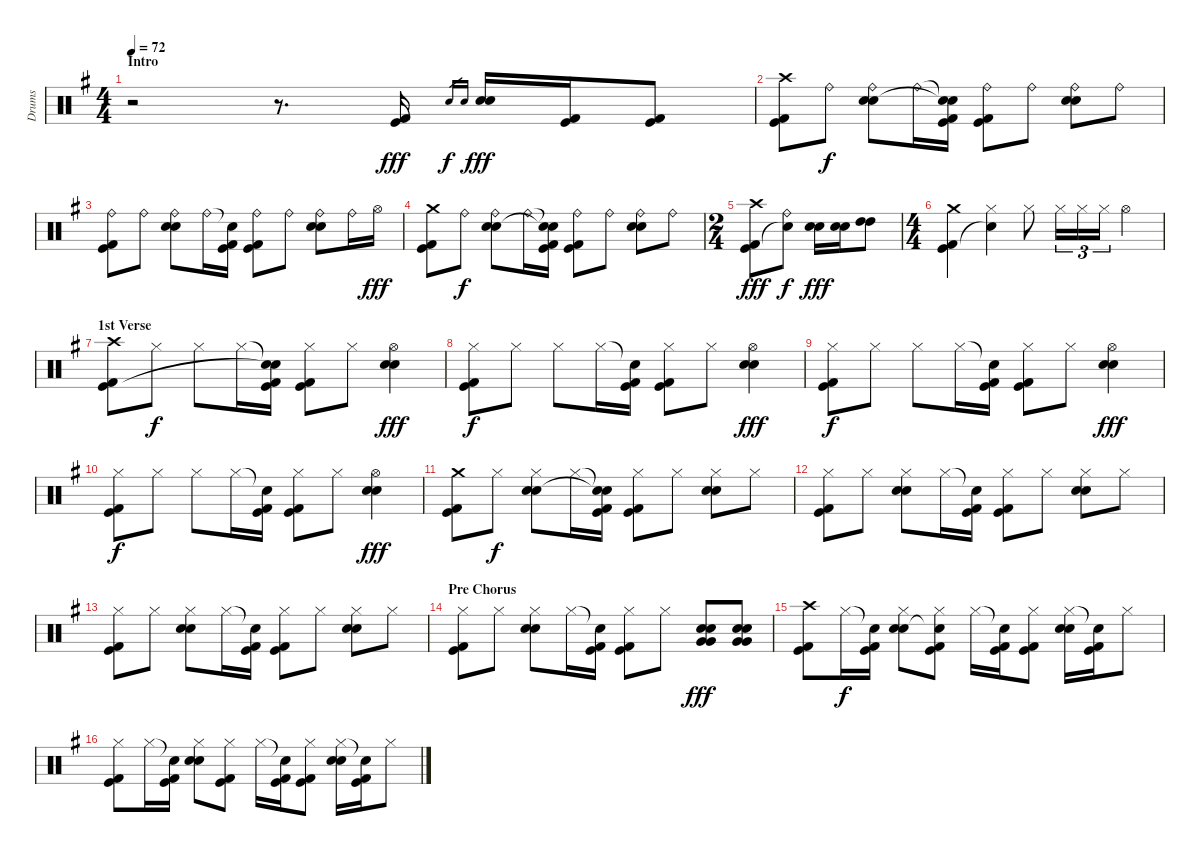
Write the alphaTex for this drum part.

\track ("Drums" "Drums") {instrument percussion}
\staff {score}
\articulation defaults
\ts (4 4)
\section ("" "Intro")
\tempo 72
\clef neutral
\ks g
r.2{dy fff} r.8{d} ("Kick (hit)" "Kick (hit) 2").16 "Electric Snare (hit)".16{gr dy f} "Snare (hit) 2".16{gr} ("Electric Snare (hit)" "Snare (hit) 2").16{dy fff} ("Kick (hit)" "Kick (hit) 2").16 ("Kick (hit)" "Kick (hit) 2").8 |
("Crash high (hit)" "Kick (hit)" "Kick (hit) 2").8 "Ride (bell)".8{dy f} ("Ride (bell)" "Electric Snare (hit)" "Snare (hit) 2").8 "Ride (bell)".16 ("Snare (hit)"{t} "Snare (hit)"{t} "Kick (hit)" "Kick (hit) 2").16 ("Ride (bell)" "Kick (hit)" "Kick (hit) 2").8 "Ride (bell)".8 ("Ride (bell)" "Electric Snare (hit)" "Snare (hit) 2").8 "Ride (bell)".8 |
("Ride (bell)" "Kick (hit)" "Kick (hit) 2").8 "Ride (bell)".8 ("Ride (bell)" "Electric Snare (hit)" "Snare (hit) 2").8 "Ride (bell)".16 ("Snare (hit)"{t} "Kick (hit)" "Kick (hit) 2").16 ("Ride (bell)" "Kick (hit)" "Kick (hit) 2").8 "Ride (bell)".8 ("Ride (bell)" "Electric Snare (hit)" "Snare (hit) 2").8 "Ride (bell)".16 "Hi-Hat (open)".16{dy fff} |
("Crash medium (hit)" "Kick (hit)" "Kick (hit) 2").8 "Ride (bell)".8{dy f} ("Ride (bell)" "Electric Snare (hit)" "Snare (hit) 2").8 "Ride (bell)".16 ("Snare (hit)"{t} "Snare (hit)"{t} "Kick (hit)" "Kick (hit) 2").16 ("Ride (bell)" "Kick (hit)" "Kick (hit) 2").8 "Ride (bell)".8 ("Ride (bell)" "Electric Snare (hit)" "Snare (hit) 2").8 "Ride (bell)".8 |
\ts (2 4)
("Crash high (hit)" "Kick (hit)" "Kick (hit) 2").8{dy fff} ("Ride (bell)" "Snare (hit)"{t}).8{dy f} ("Electric Snare (hit)" "Snare (hit) 2").16{dy fff} ("Electric Snare (hit)" "Snare (hit) 2").16 ("High Tom (hit)" "High Tom (hit)").8 |
\ts (4 4)
("Crash medium (hit)" "Kick (hit)" "Kick (hit) 2").4 ("Hi-Hat (closed)" "Snare (hit)"{t}).4 "Hi-Hat (closed)".8 "Hi-Hat (closed)".16{tu (3 2)} "Hi-Hat (closed)".16{tu (3 2)} "Hi-Hat (closed)".16{tu (3 2)} "Hi-Hat (open)".4 |
\section ("" "1st Verse")
("Crash high (hit)" "Kick (hit)" "Kick (hit) 2").8 "Hi-Hat (closed)".8{dy f} "Hi-Hat (closed)".8 "Hi-Hat (closed)".16 ("Snare (hit)"{t} "Snare (hit)"{t} "Kick (hit)" "Kick (hit) 2").16 ("Hi-Hat (closed)" "Kick (hit)" "Kick (hit) 2").8 "Hi-Hat (closed)".8 ("Hi-Hat (open)" "Electric Snare (hit)" "Snare (hit) 2").4{dy fff} |
("Hi-Hat (closed)" "Kick (hit)" "Kick (hit) 2").8{dy f} "Hi-Hat (closed)".8 "Hi-Hat (closed)".8 "Hi-Hat (closed)".16 ("Snare (hit)"{t} "Kick (hit)" "Kick (hit) 2").16 ("Hi-Hat (closed)" "Kick (hit)" "Kick (hit) 2").8 "Hi-Hat (closed)".8 ("Hi-Hat (open)" "Electric Snare (hit)" "Snare (hit) 2").4{dy fff} |
("Hi-Hat (closed)" "Kick (hit)" "Kick (hit) 2").8{dy f} "Hi-Hat (closed)".8 "Hi-Hat (closed)".8 "Hi-Hat (closed)".16 ("Snare (hit)"{t} "Kick (hit)" "Kick (hit) 2").16 ("Hi-Hat (closed)" "Kick (hit)" "Kick (hit) 2").8 "Hi-Hat (closed)".8 ("Hi-Hat (open)" "Electric Snare (hit)" "Snare (hit) 2").4{dy fff} |
("Hi-Hat (closed)" "Kick (hit)" "Kick (hit) 2").8{dy f} "Hi-Hat (closed)".8 "Hi-Hat (closed)".8 "Hi-Hat (closed)".16 ("Snare (hit)"{t} "Kick (hit)" "Kick (hit) 2").16 ("Hi-Hat (closed)" "Kick (hit)" "Kick (hit) 2").8 "Hi-Hat (closed)".8 ("Hi-Hat (open)" "Electric Snare (hit)" "Snare (hit) 2").4{dy fff} |
("Crash medium (hit)" "Kick (hit)" "Kick (hit) 2").8 "Hi-Hat (closed)".8{dy f} ("Hi-Hat (closed)" "Electric Snare (hit)" "Snare (hit) 2").8 "Hi-Hat (closed)".16 ("Snare (hit)"{t} "Snare (hit)"{t} "Kick (hit)" "Kick (hit) 2").16 ("Hi-Hat (closed)" "Kick (hit)" "Kick (hit) 2").8 "Hi-Hat (closed)".8 ("Hi-Hat (closed)" "Electric Snare (hit)" "Snare (hit) 2").8 "Hi-Hat (closed)".8 |
("Hi-Hat (closed)" "Kick (hit)" "Kick (hit) 2").8 "Hi-Hat (closed)".8 ("Hi-Hat (closed)" "Electric Snare (hit)" "Snare (hit) 2").8 "Hi-Hat (closed)".16 ("Snare (hit)"{t} "Kick (hit)" "Kick (hit) 2").16 ("Hi-Hat (closed)" "Kick (hit)" "Kick (hit) 2").8 "Hi-Hat (closed)".8 ("Hi-Hat (closed)" "Electric Snare (hit)" "Snare (hit) 2").8 "Hi-Hat (closed)".8 |
("Hi-Hat (closed)" "Kick (hit)" "Kick (hit) 2").8 "Hi-Hat (closed)".8 ("Hi-Hat (closed)" "Electric Snare (hit)" "Snare (hit) 2").8 "Hi-Hat (closed)".16 ("Snare (hit)"{t} "Kick (hit)" "Kick (hit) 2").16 ("Hi-Hat (closed)" "Kick (hit)" "Kick (hit) 2").8 "Hi-Hat (closed)".8 ("Hi-Hat (closed)" "Electric Snare (hit)" "Snare (hit) 2").8 "Hi-Hat (closed)".8 |
\section ("" "Pre Chorus")
("Hi-Hat (closed)" "Kick (hit)" "Kick (hit) 2").8 "Hi-Hat (closed)".8 ("Hi-Hat (closed)" "Electric Snare (hit)" "Snare (hit) 2").8 "Hi-Hat (closed)".16 ("Snare (hit)"{t} "Kick (hit)" "Kick (hit) 2").16 ("Hi-Hat (closed)" "Kick (hit)" "Kick (hit) 2").8 "Hi-Hat (closed)".8 ("Electric Snare (hit)" "Snare (hit) 2" "Very Low Tom (hit)" "Very Low Tom (hit)").8{dy fff} ("Electric Snare (hit)" "Snare (hit) 2" "Very Low Tom (hit)" "Very Low Tom (hit)").8 |
("Crash high (hit)" "Kick (hit)" "Kick (hit) 2").8 "Hi-Hat (closed)".16{dy f} ("Snare (hit)"{t} "Kick (hit)" "Kick (hit) 2").16 ("Hi-Hat (closed)" "Electric Snare (hit)" "Snare (hit) 2").8 ("Hi-Hat (closed)" "Snare (hit)"{t} "Kick (hit)" "Kick (hit) 2").8 "Hi-Hat (closed)".16 ("Snare (hit)"{t} "Kick (hit)" "Kick (hit) 2").16 ("Hi-Hat (closed)" "Kick (hit)" "Kick (hit) 2").8 ("Hi-Hat (closed)" "Electric Snare (hit)" "Snare (hit) 2").16 ("Snare (hit)"{t} "Kick (hit)" "Kick (hit) 2").16 "Hi-Hat (closed)".8 |
("Hi-Hat (closed)" "Kick (hit)" "Kick (hit) 2").8 "Hi-Hat (closed)".16 ("Snare (hit)"{t} "Kick (hit)" "Kick (hit) 2").16 ("Hi-Hat (closed)" "Electric Snare (hit)" "Snare (hit) 2").8 ("Hi-Hat (closed)" "Kick (hit)" "Kick (hit) 2").8 "Hi-Hat (closed)".16 ("Snare (hit)"{t} "Kick (hit)" "Kick (hit) 2").16 ("Hi-Hat (closed)" "Kick (hit)" "Kick (hit) 2").8 ("Hi-Hat (closed)" "Electric Snare (hit)" "Snare (hit) 2").16 ("Snare (hit)"{t} "Kick (hit)" "Kick (hit) 2").16 "Hi-Hat (closed)".8
